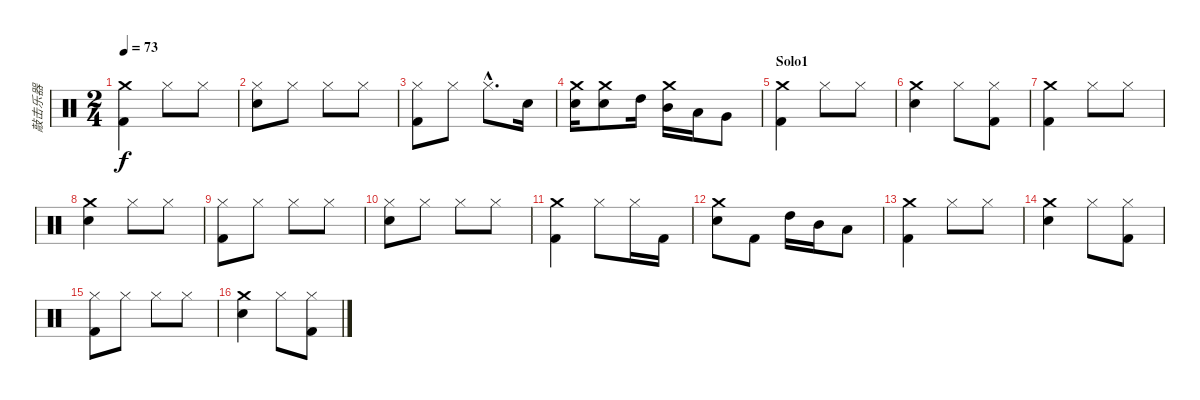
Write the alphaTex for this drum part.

\track ("敲击乐器" "敲击乐器") {instrument percussion}
\staff {score}
\articulation defaults
\ts (2 4)
\tempo 73
\clef neutral
\ks c
("Crash medium (hit)" "Kick (hit) 2").4{dy f} "Hi-Hat (closed)".8 "Hi-Hat (closed)".8 |
("Hi-Hat (closed)" "Electric Snare (hit)").8 "Hi-Hat (closed)".8 "Hi-Hat (closed)".8 "Hi-Hat (closed)".8 |
("Hi-Hat (closed)" "Kick (hit) 2").8 "Hi-Hat (closed)".8 "Hi-Hat (closed)"{hac}.8{d} "Electric Snare (hit)".16 |
("Crash medium (hit)" "Electric Snare (hit)").16 ("Crash medium (hit)" "Electric Snare (hit)").8 "High Tom (hit)".16 ("Crash medium (hit)" "Mid Tom (hit)").16 "Low Tom (hit)".16 "Very Low Tom (hit)".8 |
\section ("" "Solo1")
("Crash medium (hit)" "Kick (hit) 2").4 "Hi-Hat (closed)".8 "Hi-Hat (closed)".8 |
("Crash medium (hit)" "Electric Snare (hit)").4 "Hi-Hat (closed)".8 ("Hi-Hat (closed)" "Kick (hit) 2").8 |
("Crash medium (hit)" "Kick (hit) 2").4 "Hi-Hat (closed)".8 "Hi-Hat (closed)".8 |
("Crash medium (hit)" "Electric Snare (hit)").4 "Hi-Hat (closed)".8 "Hi-Hat (closed)".8 |
("Hi-Hat (closed)" "Kick (hit) 2").8 "Hi-Hat (closed)".8 "Hi-Hat (closed)".8 "Hi-Hat (closed)".8 |
("Hi-Hat (closed)" "Electric Snare (hit)").8 "Hi-Hat (closed)".8 "Hi-Hat (closed)".8 "Hi-Hat (closed)".8 |
("Crash medium (hit)" "Kick (hit) 2").4 "Hi-Hat (closed)".8 "Hi-Hat (closed)".16 "Kick (hit) 2".16 |
("Crash medium (hit)" "Electric Snare (hit)").8 "Kick (hit) 2".8 "High Tom (hit)".16 "Mid Tom (hit)".16 "Low Tom (hit)".8 |
("Crash medium (hit)" "Kick (hit) 2").4 "Hi-Hat (closed)".8 "Hi-Hat (closed)".8 |
("Crash medium (hit)" "Electric Snare (hit)").4 "Hi-Hat (closed)".8 ("Hi-Hat (closed)" "Kick (hit) 2").8 |
("Hi-Hat (closed)" "Kick (hit) 2").8 "Hi-Hat (closed)".8 "Hi-Hat (closed)".8 "Hi-Hat (closed)".8 |
("Crash medium (hit)" "Electric Snare (hit)").4 "Hi-Hat (closed)".8 ("Hi-Hat (closed)" "Kick (hit) 2").8
